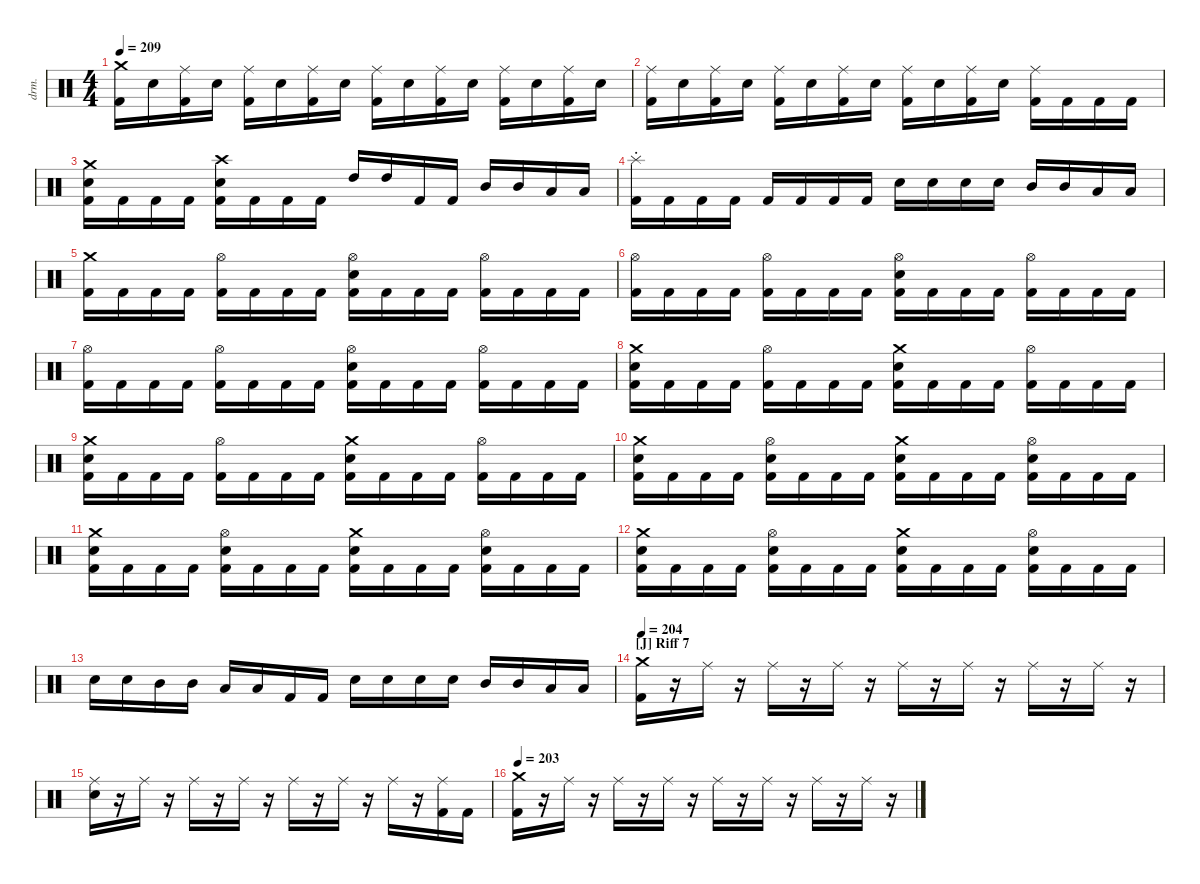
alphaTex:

\hideDynamics
\bracketExtendMode nobrackets
\track ("Drums" "drm.") {instrument percussion}
\staff {score}
\articulation defaults
\ts (4 4)
\tempo 209
\clef neutral
\ks c
("Kick (hit) 2" "Crash medium (hit)").16{dy mf beam Down} "Snare (hit) 2".16{beam Down} ("Kick (hit) 2" "Ride (middle)").16{beam Down} "Snare (hit) 2".16{beam Down} ("Kick (hit) 2" "Ride (middle)").16{beam Down} "Snare (hit) 2".16{beam Down} ("Kick (hit) 2" "Ride (middle)").16{beam Down} "Snare (hit) 2".16{beam Down} ("Kick (hit) 2" "Ride (middle)").16{beam Down} "Snare (hit) 2".16{beam Down} ("Kick (hit) 2" "Ride (middle)").16{beam Down} "Snare (hit) 2".16{beam Down} ("Kick (hit) 2" "Ride (middle)").16{beam Down} "Snare (hit) 2".16{beam Down} ("Kick (hit) 2" "Ride (middle)").16{beam Down} "Snare (hit) 2".16{beam Down} |
("Kick (hit) 2" "Ride (middle)").16{beam Down} "Snare (hit) 2".16{beam Down} ("Kick (hit) 2" "Ride (middle)").16{beam Down} "Snare (hit) 2".16{beam Down} ("Kick (hit) 2" "Ride (middle)").16{beam Down} "Snare (hit) 2".16{beam Down} ("Kick (hit) 2" "Ride (middle)").16{beam Down} "Snare (hit) 2".16{beam Down} ("Kick (hit) 2" "Ride (middle)").16{beam Down} "Snare (hit) 2".16{beam Down} ("Kick (hit) 2" "Ride (middle)").16{beam Down} "Snare (hit) 2".16{beam Down} ("Kick (hit) 2" "Ride (middle)").16{beam Down} "Kick (hit) 2".16{beam Down} "Kick (hit) 2".16{beam Down} "Kick (hit) 2".16{beam Down} |
("Kick (hit) 2" "Snare (hit) 2" "Crash medium (hit)").16{beam Down} "Kick (hit) 2".16{beam Down} "Kick (hit) 2".16{beam Down} "Kick (hit) 2".16{beam Down} ("Kick (hit) 2" "Snare (hit) 2" "Crash high (hit)").16{beam Down} "Kick (hit) 2".16{beam Down} "Kick (hit) 2".16{beam Down} "Kick (hit) 2".16{beam Down} "High Tom (hit)".16{beam Up} "High Tom (hit)".16{beam Up} "Kick (hit) 2".16{beam Up} "Kick (hit) 2".16{beam Up} "Mid Tom (hit)".16{beam Up} "Mid Tom (hit)".16{beam Up} "Low Tom (hit)".16{beam Up} "Low Tom (hit)".16{beam Up} |
("Kick (hit) 2" "Splash (choke)").16{beam Down} "Kick (hit) 2".16{beam Down} "Kick (hit) 2".16{beam Down} "Kick (hit) 2".16{beam Down} "Kick (hit) 2".16{beam Up} "Kick (hit) 2".16{beam Up} "Kick (hit) 2".16{beam Up} "Kick (hit) 2".16{beam Up} "Snare (hit) 2".16{beam Down} "Snare (hit) 2".16{beam Down} "Snare (hit) 2".16{beam Down} "Snare (hit) 2".16{beam Down} "Mid Tom (hit)".16{beam Up} "Mid Tom (hit)".16{beam Up} "Low Tom (hit)".16{beam Up} "Low Tom (hit)".16{beam Up} |
("Kick (hit) 2" "Crash medium (hit)").16{beam Down} "Kick (hit) 2".16{beam Down} "Kick (hit) 2".16{beam Down} "Kick (hit) 2".16{beam Down} ("Kick (hit) 2" "Hi-Hat (open)").16{beam Down} "Kick (hit) 2".16{beam Down} "Kick (hit) 2".16{beam Down} "Kick (hit) 2".16{beam Down} ("Kick (hit) 2" "Hi-Hat (open)" "Snare (hit) 2").16{beam Down} "Kick (hit) 2".16{beam Down} "Kick (hit) 2".16{beam Down} "Kick (hit) 2".16{beam Down} ("Kick (hit) 2" "Hi-Hat (open)").16{beam Down} "Kick (hit) 2".16{beam Down} "Kick (hit) 2".16{beam Down} "Kick (hit) 2".16{beam Down} |
("Kick (hit) 2" "Hi-Hat (open)").16{beam Down} "Kick (hit) 2".16{beam Down} "Kick (hit) 2".16{beam Down} "Kick (hit) 2".16{beam Down} ("Kick (hit) 2" "Hi-Hat (open)").16{beam Down} "Kick (hit) 2".16{beam Down} "Kick (hit) 2".16{beam Down} "Kick (hit) 2".16{beam Down} ("Kick (hit) 2" "Hi-Hat (open)" "Snare (hit) 2").16{beam Down} "Kick (hit) 2".16{beam Down} "Kick (hit) 2".16{beam Down} "Kick (hit) 2".16{beam Down} ("Kick (hit) 2" "Hi-Hat (open)").16{beam Down} "Kick (hit) 2".16{beam Down} "Kick (hit) 2".16{beam Down} "Kick (hit) 2".16{beam Down} |
("Kick (hit) 2" "Hi-Hat (open)").16{beam Down} "Kick (hit) 2".16{beam Down} "Kick (hit) 2".16{beam Down} "Kick (hit) 2".16{beam Down} ("Kick (hit) 2" "Hi-Hat (open)").16{beam Down} "Kick (hit) 2".16{beam Down} "Kick (hit) 2".16{beam Down} "Kick (hit) 2".16{beam Down} ("Kick (hit) 2" "Hi-Hat (open)" "Snare (hit) 2").16{beam Down} "Kick (hit) 2".16{beam Down} "Kick (hit) 2".16{beam Down} "Kick (hit) 2".16{beam Down} ("Kick (hit) 2" "Hi-Hat (open)").16{beam Down} "Kick (hit) 2".16{beam Down} "Kick (hit) 2".16{beam Down} "Kick (hit) 2".16{beam Down} |
("Kick (hit) 2" "Crash medium (hit)" "Snare (hit) 2").16{beam Down} "Kick (hit) 2".16{beam Down} "Kick (hit) 2".16{beam Down} "Kick (hit) 2".16{beam Down} ("Kick (hit) 2" "Hi-Hat (open)").16{beam Down} "Kick (hit) 2".16{beam Down} "Kick (hit) 2".16{beam Down} "Kick (hit) 2".16{beam Down} ("Kick (hit) 2" "Snare (hit) 2" "Crash medium (hit)").16{beam Down} "Kick (hit) 2".16{beam Down} "Kick (hit) 2".16{beam Down} "Kick (hit) 2".16{beam Down} ("Kick (hit) 2" "Hi-Hat (open)").16{beam Down} "Kick (hit) 2".16{beam Down} "Kick (hit) 2".16{beam Down} "Kick (hit) 2".16{beam Down} |
("Kick (hit) 2" "Crash medium (hit)" "Snare (hit) 2").16{beam Down} "Kick (hit) 2".16{beam Down} "Kick (hit) 2".16{beam Down} "Kick (hit) 2".16{beam Down} ("Kick (hit) 2" "Hi-Hat (open)").16{beam Down} "Kick (hit) 2".16{beam Down} "Kick (hit) 2".16{beam Down} "Kick (hit) 2".16{beam Down} ("Kick (hit) 2" "Snare (hit) 2" "Crash medium (hit)").16{beam Down} "Kick (hit) 2".16{beam Down} "Kick (hit) 2".16{beam Down} "Kick (hit) 2".16{beam Down} ("Kick (hit) 2" "Hi-Hat (open)").16{beam Down} "Kick (hit) 2".16{beam Down} "Kick (hit) 2".16{beam Down} "Kick (hit) 2".16{beam Down} |
("Kick (hit) 2" "Crash medium (hit)" "Snare (hit) 2").16{beam Down} "Kick (hit) 2".16{beam Down} "Kick (hit) 2".16{beam Down} "Kick (hit) 2".16{beam Down} ("Kick (hit) 2" "Hi-Hat (open)" "Snare (hit) 2").16{beam Down} "Kick (hit) 2".16{beam Down} "Kick (hit) 2".16{beam Down} "Kick (hit) 2".16{beam Down} ("Kick (hit) 2" "Snare (hit) 2" "Crash medium (hit)").16{beam Down} "Kick (hit) 2".16{beam Down} "Kick (hit) 2".16{beam Down} "Kick (hit) 2".16{beam Down} ("Kick (hit) 2" "Hi-Hat (open)" "Snare (hit) 2").16{beam Down} "Kick (hit) 2".16{beam Down} "Kick (hit) 2".16{beam Down} "Kick (hit) 2".16{beam Down} |
("Kick (hit) 2" "Crash medium (hit)" "Snare (hit) 2").16{beam Down} "Kick (hit) 2".16{beam Down} "Kick (hit) 2".16{beam Down} "Kick (hit) 2".16{beam Down} ("Kick (hit) 2" "Hi-Hat (open)" "Snare (hit) 2").16{beam Down} "Kick (hit) 2".16{beam Down} "Kick (hit) 2".16{beam Down} "Kick (hit) 2".16{beam Down} ("Kick (hit) 2" "Snare (hit) 2" "Crash medium (hit)").16{beam Down} "Kick (hit) 2".16{beam Down} "Kick (hit) 2".16{beam Down} "Kick (hit) 2".16{beam Down} ("Kick (hit) 2" "Hi-Hat (open)" "Snare (hit) 2").16{beam Down} "Kick (hit) 2".16{beam Down} "Kick (hit) 2".16{beam Down} "Kick (hit) 2".16{beam Down} |
("Kick (hit) 2" "Crash medium (hit)" "Snare (hit) 2").16{beam Down} "Kick (hit) 2".16{beam Down} "Kick (hit) 2".16{beam Down} "Kick (hit) 2".16{beam Down} ("Kick (hit) 2" "Hi-Hat (open)" "Snare (hit) 2").16{beam Down} "Kick (hit) 2".16{beam Down} "Kick (hit) 2".16{beam Down} "Kick (hit) 2".16{beam Down} ("Kick (hit) 2" "Snare (hit) 2" "Crash medium (hit)").16{beam Down} "Kick (hit) 2".16{beam Down} "Kick (hit) 2".16{beam Down} "Kick (hit) 2".16{beam Down} ("Kick (hit) 2" "Hi-Hat (open)" "Snare (hit) 2").16{beam Down} "Kick (hit) 2".16{beam Down} "Kick (hit) 2".16{beam Down} "Kick (hit) 2".16{beam Down} |
"Snare (hit) 2".16{beam Down} "Snare (hit) 2".16{beam Down} "Mid Tom (hit)".16{beam Down} "Mid Tom (hit)".16{beam Down} "Low Tom (hit)".16{beam Up} "Low Tom (hit)".16{beam Up} "Kick (hit) 2".16{beam Up} "Kick (hit) 2".16{beam Up} "Snare (hit) 2".16{beam Down} "Snare (hit) 2".16{beam Down} "Snare (hit) 2".16{beam Down} "Snare (hit) 2".16{beam Down} "Mid Tom (hit)".16{beam Up} "Mid Tom (hit)".16{beam Up} "Low Tom (hit)".16{beam Up} "Low Tom (hit)".16{beam Up} |
\section ("J" "Riff 7")
\tempo 204
("Crash medium (hit)" "Kick (hit) 2").16{beam Down} r.16{beam Down} "Ride (middle)".16{beam Down} r.16{beam Down} "Ride (middle)".16{beam Down} r.16{beam Down} "Ride (middle)".16{beam Down} r.16{beam Down} "Ride (middle)".16{beam Down} r.16{beam Down} "Ride (middle)".16{beam Down} r.16{beam Down} "Ride (middle)".16{beam Down} r.16{beam Down} "Ride (middle)".16{beam Down} r.16{beam Down} |
("Ride (middle)" "Snare (hit) 2").16{beam Down} r.16{beam Down} "Ride (middle)".16{beam Down} r.16{beam Down} "Ride (middle)".16{beam Down} r.16{beam Down} "Ride (middle)".16{beam Down} r.16{beam Down} "Ride (middle)".16{beam Down} r.16{beam Down} "Ride (middle)".16{beam Down} r.16{beam Down} "Ride (middle)".16{beam Down} r.16{beam Down} ("Ride (middle)" "Kick (hit) 2").16{beam Down} "Kick (hit) 2".16{beam Down} |
\tempo 203
("Crash medium (hit)" "Kick (hit) 2").16{beam Down} r.16{beam Down} "Ride (middle)".16{beam Down} r.16{beam Down} "Ride (middle)".16{beam Down} r.16{beam Down} "Ride (middle)".16{beam Down} r.16{beam Down} "Ride (middle)".16{beam Down} r.16{beam Down} "Ride (middle)".16{beam Down} r.16{beam Down} "Ride (middle)".16{beam Down} r.16{beam Down} "Ride (middle)".16{beam Down} r.16{beam Down}
